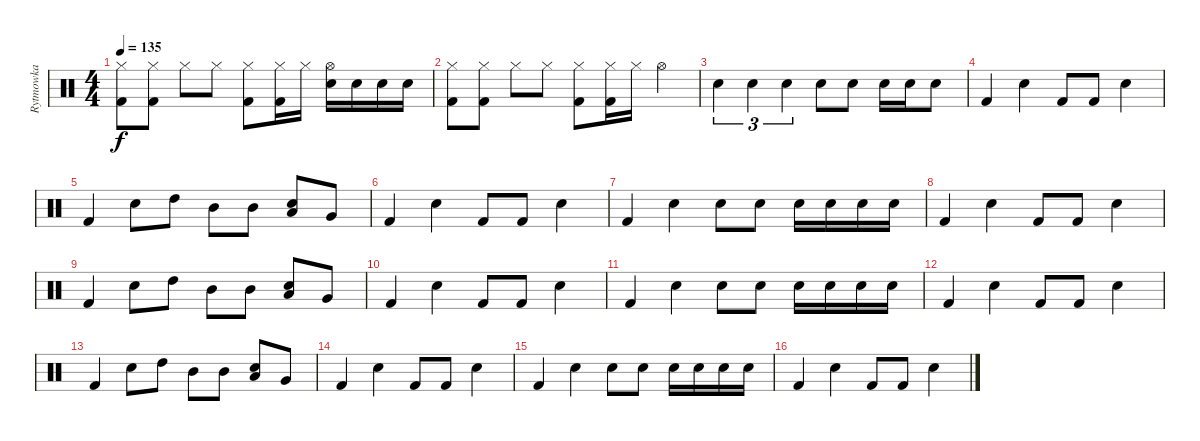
\track ("Rytmowka" "Rytmowka") {instrument percussion}
\staff {score}
\articulation defaults
\ts (4 4)
\tempo 135
\clef neutral
\ks c
("Hi-Hat (closed)" "Kick (hit) 2").8{dy f} ("Hi-Hat (closed)" "Kick (hit) 2").8 "Hi-Hat (closed)".8 "Hi-Hat (closed)".8 ("Hi-Hat (closed)" "Kick (hit) 2").8 ("Hi-Hat (closed)" "Kick (hit) 2").16 "Hi-Hat (closed)".16 ("Hi-Hat (open)" "Snare (hit) 2").16 "Snare (hit) 2".16 "Snare (hit) 2".16 "Snare (hit) 2".16 |
("Hi-Hat (closed)" "Kick (hit) 2").8 ("Hi-Hat (closed)" "Kick (hit) 2").8 "Hi-Hat (closed)".8 "Hi-Hat (closed)".8 ("Hi-Hat (closed)" "Kick (hit) 2").8 ("Hi-Hat (closed)" "Kick (hit) 2").16 "Hi-Hat (closed)".16 "Hi-Hat (open)".4 |
"Snare (hit) 2".4{tu (3 2)} "Snare (hit) 2".4{tu (3 2)} "Snare (hit) 2".4{tu (3 2)} "Snare (hit) 2".8 "Snare (hit) 2".8 "Snare (hit) 2".16 "Snare (hit) 2".16 "Snare (hit) 2".8 |
"Kick (hit) 2".4 "Snare (hit) 2".4 "Kick (hit) 2".8 "Kick (hit) 2".8 "Snare (hit) 2".4 |
"Kick (hit) 2".4 "Snare (hit) 2".8 "High Tom (hit)".8 "Mid Tom (hit)".8 "Mid Tom (hit)".8 ("Snare (hit) 2" "Low Tom (hit)").8 "Very Low Tom (hit)".8 |
"Kick (hit) 2".4 "Snare (hit) 2".4 "Kick (hit) 2".8 "Kick (hit) 2".8 "Snare (hit) 2".4 |
"Kick (hit) 2".4 "Snare (hit) 2".4 "Snare (hit) 2".8 "Snare (hit) 2".8 "Snare (hit) 2".16 "Snare (hit) 2".16 "Snare (hit) 2".16 "Snare (hit) 2".16 |
"Kick (hit) 2".4 "Snare (hit) 2".4 "Kick (hit) 2".8 "Kick (hit) 2".8 "Snare (hit) 2".4 |
"Kick (hit) 2".4 "Snare (hit) 2".8 "High Tom (hit)".8 "Mid Tom (hit)".8 "Mid Tom (hit)".8 ("Snare (hit) 2" "Low Tom (hit)").8 "Very Low Tom (hit)".8 |
"Kick (hit) 2".4 "Snare (hit) 2".4 "Kick (hit) 2".8 "Kick (hit) 2".8 "Snare (hit) 2".4 |
"Kick (hit) 2".4 "Snare (hit) 2".4 "Snare (hit) 2".8 "Snare (hit) 2".8 "Snare (hit) 2".16 "Snare (hit) 2".16 "Snare (hit) 2".16 "Snare (hit) 2".16 |
"Kick (hit) 2".4 "Snare (hit) 2".4 "Kick (hit) 2".8 "Kick (hit) 2".8 "Snare (hit) 2".4 |
"Kick (hit) 2".4 "Snare (hit) 2".8 "High Tom (hit)".8 "Mid Tom (hit)".8 "Mid Tom (hit)".8 ("Snare (hit) 2" "Low Tom (hit)").8 "Very Low Tom (hit)".8 |
"Kick (hit) 2".4 "Snare (hit) 2".4 "Kick (hit) 2".8 "Kick (hit) 2".8 "Snare (hit) 2".4 |
"Kick (hit) 2".4 "Snare (hit) 2".4 "Snare (hit) 2".8 "Snare (hit) 2".8 "Snare (hit) 2".16 "Snare (hit) 2".16 "Snare (hit) 2".16 "Snare (hit) 2".16 |
"Kick (hit) 2".4 "Snare (hit) 2".4 "Kick (hit) 2".8 "Kick (hit) 2".8 "Snare (hit) 2".4
